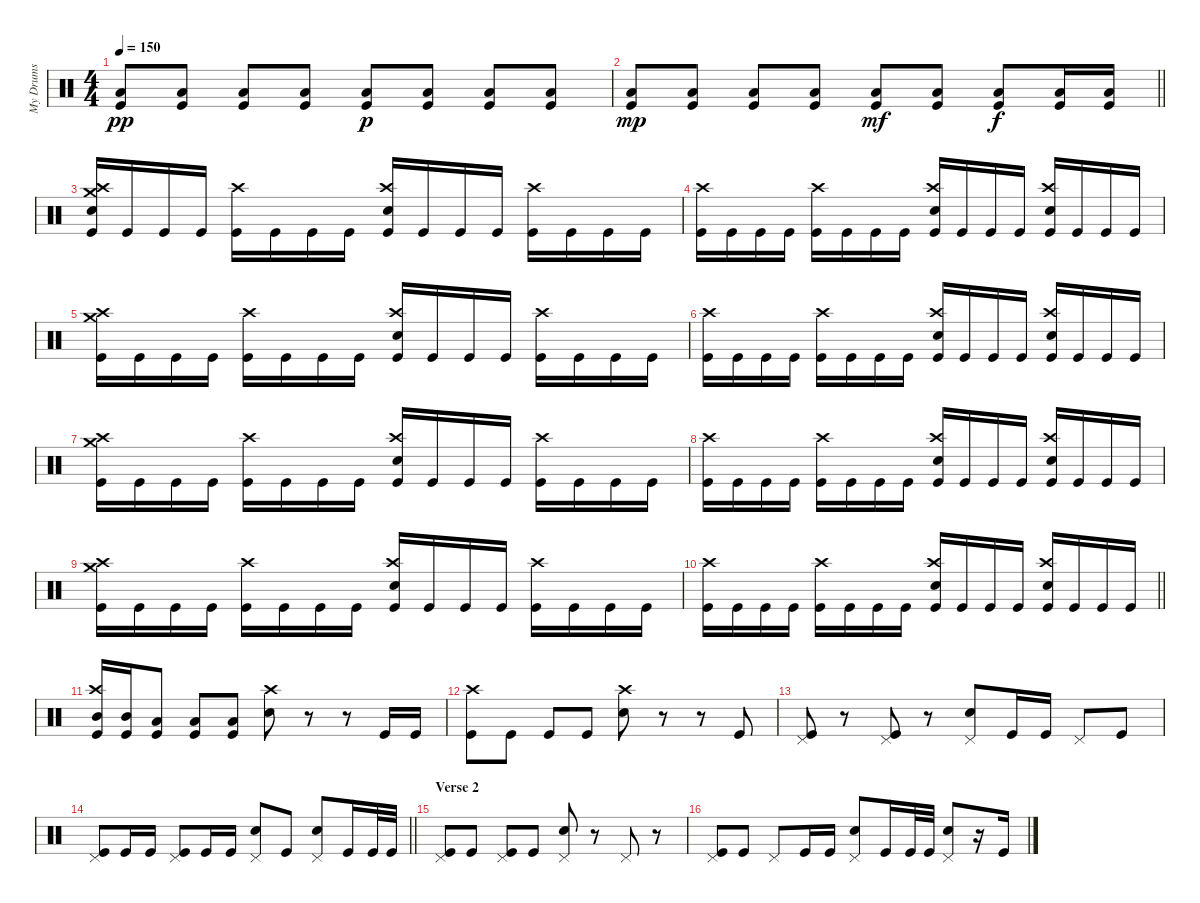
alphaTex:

\track ("My Drums" "My Drums") {instrument percussion}
\staff {score}
\articulation defaults
\ts (4 4)
\tempo 150
\clef neutral
\ks c
("Low Floor Tom (hit)" "Kick (hit)").8{dy pp} ("Low Floor Tom (hit)" "Kick (hit)").8 ("Low Floor Tom (hit)" "Kick (hit)").8 ("Low Floor Tom (hit)" "Kick (hit)").8 ("Low Floor Tom (hit)" "Kick (hit)").8{dy p} ("Low Floor Tom (hit)" "Kick (hit)").8 ("Low Floor Tom (hit)" "Kick (hit)").8 ("Low Floor Tom (hit)" "Kick (hit)").8 |
\barLineRight lightlight
("Low Floor Tom (hit)" "Kick (hit)").8{dy mp} ("Low Floor Tom (hit)" "Kick (hit)").8 ("Low Floor Tom (hit)" "Kick (hit)").8 ("Low Floor Tom (hit)" "Kick (hit)").8 ("Low Floor Tom (hit)" "Kick (hit)").8{dy mf} ("Low Floor Tom (hit)" "Kick (hit)").8 ("Low Floor Tom (hit)" "Kick (hit)").8{dy f} ("Low Floor Tom (hit)" "Kick (hit)").16 ("Low Floor Tom (hit)" "Kick (hit)").16 |
\section ("" "")
("Crash high (hit)" "Crash medium (hit)" "Snare (hit) 2" "Kick (hit)").16 "Kick (hit)".16 "Kick (hit)".16 "Kick (hit)".16 ("Crash high (hit)" "Kick (hit)").16 "Kick (hit)".16 "Kick (hit)".16 "Kick (hit)".16 ("Crash high (hit)" "Snare (hit) 2" "Kick (hit)").16 "Kick (hit)".16 "Kick (hit)".16 "Kick (hit)".16 ("Crash high (hit)" "Kick (hit)").16 "Kick (hit)".16 "Kick (hit)".16 "Kick (hit)".16 |
("Crash high (hit)" "Kick (hit)").16 "Kick (hit)".16 "Kick (hit)".16 "Kick (hit)".16 ("Crash high (hit)" "Kick (hit)").16 "Kick (hit)".16 "Kick (hit)".16 "Kick (hit)".16 ("Crash high (hit)" "Snare (hit) 2" "Kick (hit)").16 "Kick (hit)".16 "Kick (hit)".16 "Kick (hit)".16 ("Crash high (hit)" "Snare (hit) 2" "Kick (hit)").16 "Kick (hit)".16 "Kick (hit)".16 "Kick (hit)".16 |
("Crash high (hit)" "Crash medium (hit)" "Kick (hit)").16 "Kick (hit)".16 "Kick (hit)".16 "Kick (hit)".16 ("Crash high (hit)" "Kick (hit)").16 "Kick (hit)".16 "Kick (hit)".16 "Kick (hit)".16 ("Crash high (hit)" "Snare (hit) 2" "Kick (hit)").16 "Kick (hit)".16 "Kick (hit)".16 "Kick (hit)".16 ("Crash high (hit)" "Kick (hit)").16 "Kick (hit)".16 "Kick (hit)".16 "Kick (hit)".16 |
("Crash high (hit)" "Kick (hit)").16 "Kick (hit)".16 "Kick (hit)".16 "Kick (hit)".16 ("Crash high (hit)" "Kick (hit)").16 "Kick (hit)".16 "Kick (hit)".16 "Kick (hit)".16 ("Crash high (hit)" "Snare (hit) 2" "Kick (hit)").16 "Kick (hit)".16 "Kick (hit)".16 "Kick (hit)".16 ("Crash high (hit)" "Snare (hit) 2" "Kick (hit)").16 "Kick (hit)".16 "Kick (hit)".16 "Kick (hit)".16 |
("Crash high (hit)" "Crash medium (hit)" "Kick (hit)").16 "Kick (hit)".16 "Kick (hit)".16 "Kick (hit)".16 ("Crash high (hit)" "Kick (hit)").16 "Kick (hit)".16 "Kick (hit)".16 "Kick (hit)".16 ("Crash high (hit)" "Snare (hit) 2" "Kick (hit)").16 "Kick (hit)".16 "Kick (hit)".16 "Kick (hit)".16 ("Crash high (hit)" "Kick (hit)").16 "Kick (hit)".16 "Kick (hit)".16 "Kick (hit)".16 |
("Crash high (hit)" "Kick (hit)").16 "Kick (hit)".16 "Kick (hit)".16 "Kick (hit)".16 ("Crash high (hit)" "Kick (hit)").16 "Kick (hit)".16 "Kick (hit)".16 "Kick (hit)".16 ("Crash high (hit)" "Snare (hit) 2" "Kick (hit)").16 "Kick (hit)".16 "Kick (hit)".16 "Kick (hit)".16 ("Crash high (hit)" "Snare (hit) 2" "Kick (hit)").16 "Kick (hit)".16 "Kick (hit)".16 "Kick (hit)".16 |
("Crash high (hit)" "Crash medium (hit)" "Kick (hit)").16 "Kick (hit)".16 "Kick (hit)".16 "Kick (hit)".16 ("Crash high (hit)" "Kick (hit)").16 "Kick (hit)".16 "Kick (hit)".16 "Kick (hit)".16 ("Crash high (hit)" "Snare (hit) 2" "Kick (hit)").16 "Kick (hit)".16 "Kick (hit)".16 "Kick (hit)".16 ("Crash high (hit)" "Kick (hit)").16 "Kick (hit)".16 "Kick (hit)".16 "Kick (hit)".16 |
\barLineRight lightlight
("Crash high (hit)" "Kick (hit)").16 "Kick (hit)".16 "Kick (hit)".16 "Kick (hit)".16 ("Crash high (hit)" "Kick (hit)").16 "Kick (hit)".16 "Kick (hit)".16 "Kick (hit)".16 ("Crash high (hit)" "Snare (hit) 2" "Kick (hit)").16 "Kick (hit)".16 "Kick (hit)".16 "Kick (hit)".16 ("Crash high (hit)" "Snare (hit) 2" "Kick (hit)").16 "Kick (hit)".16 "Kick (hit)".16 "Kick (hit)".16 |
\section ("" "")
("Crash high (hit)" "Mid Tom (hit)" "Kick (hit)").16 ("Mid Tom (hit)" "Kick (hit)").16 ("Low Floor Tom (hit)" "Kick (hit)").8 ("Low Floor Tom (hit)" "Kick (hit)").8 ("Low Floor Tom (hit)" "Kick (hit)").8 ("Crash high (hit)" "Snare (hit) 2").8 r.8 r.8 "Kick (hit)".16 "Kick (hit)".16 |
("Crash high (hit)" "Kick (hit)").8 "Kick (hit)".8 "Kick (hit)".8 "Kick (hit)".8 ("Crash high (hit)" "Snare (hit) 2").8 r.8 r.8 "Kick (hit)".8 |
("Pedal Hi-Hat (hit)" "Kick (hit)").8 r.8 ("Pedal Hi-Hat (hit)" "Kick (hit)").8 r.8 ("Pedal Hi-Hat (hit)" "Snare (hit) 2").8 "Kick (hit)".16 "Kick (hit)".16 "Pedal Hi-Hat (hit)".8 "Kick (hit)".8 |
\barLineRight lightlight
("Pedal Hi-Hat (hit)" "Kick (hit)").8 "Kick (hit)".16 "Kick (hit)".16 ("Pedal Hi-Hat (hit)" "Kick (hit)").8 "Kick (hit)".16 "Kick (hit)".16 ("Pedal Hi-Hat (hit)" "Snare (hit) 2").8 "Kick (hit)".8 ("Pedal Hi-Hat (hit)" "Snare (hit) 2").8 "Kick (hit)".16 "Kick (hit)".32 "Kick (hit)".32 |
\section ("" "Verse 2")
("Pedal Hi-Hat (hit)" "Kick (hit)").8 "Kick (hit)".8 ("Pedal Hi-Hat (hit)" "Kick (hit)").8 "Kick (hit)".8 ("Pedal Hi-Hat (hit)" "Snare (hit) 2").8 r.8 "Pedal Hi-Hat (hit)".8 r.8 |
("Pedal Hi-Hat (hit)" "Kick (hit)").8 "Kick (hit)".8 "Pedal Hi-Hat (hit)".8 "Kick (hit)".16 "Kick (hit)".16 ("Pedal Hi-Hat (hit)" "Snare (hit) 2").8 "Kick (hit)".16 "Kick (hit)".32 "Kick (hit)".32 ("Pedal Hi-Hat (hit)" "Snare (hit) 2").8 r.16 "Kick (hit)".16
